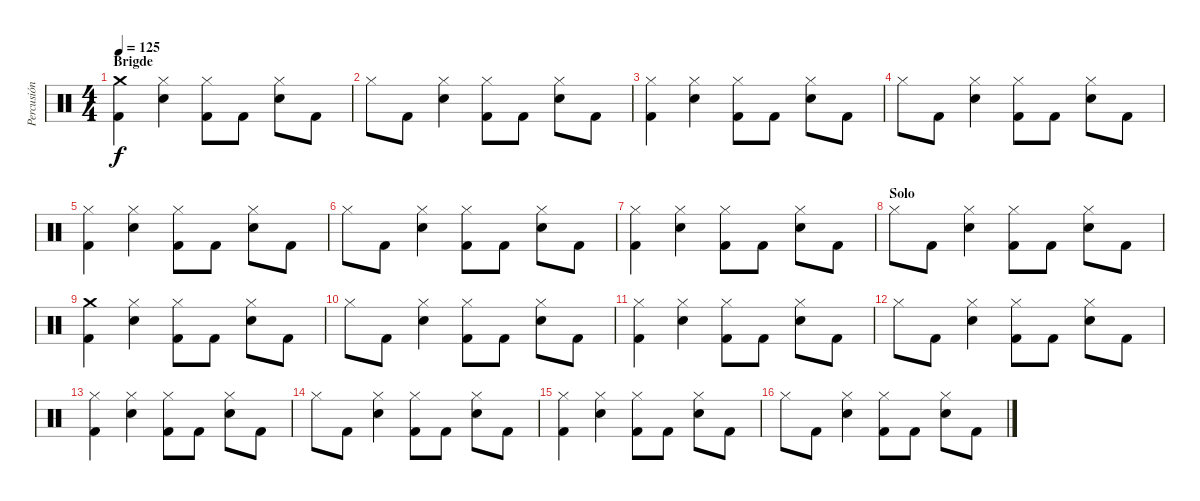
\track ("Percusión" "Percusión") {instrument percussion}
\staff {score}
\articulation defaults
\ts (4 4)
\section ("" "Brigde")
\tempo 125
\clef neutral
\ks c
("Crash medium (hit)" "Kick (hit) 2").4{dy f} ("Snare (hit) 2" "Hi-Hat (closed)").4 ("Kick (hit) 2" "Hi-Hat (closed)").8 "Kick (hit) 2".8 ("Hi-Hat (closed)" "Snare (hit) 2").8 "Kick (hit) 2".8 |
"Hi-Hat (closed)".8 "Kick (hit) 2".8 ("Hi-Hat (closed)" "Snare (hit) 2").4 ("Hi-Hat (closed)" "Kick (hit) 2").8 "Kick (hit) 2".8 ("Hi-Hat (closed)" "Snare (hit) 2").8 "Kick (hit) 2".8 |
("Hi-Hat (closed)" "Kick (hit) 2").4 ("Snare (hit) 2" "Hi-Hat (closed)").4 ("Kick (hit) 2" "Hi-Hat (closed)").8 "Kick (hit) 2".8 ("Hi-Hat (closed)" "Snare (hit) 2").8 "Kick (hit) 2".8 |
"Hi-Hat (closed)".8 "Kick (hit) 2".8 ("Hi-Hat (closed)" "Snare (hit) 2").4 ("Hi-Hat (closed)" "Kick (hit) 2").8 "Kick (hit) 2".8 ("Hi-Hat (closed)" "Snare (hit) 2").8 "Kick (hit) 2".8 |
("Hi-Hat (closed)" "Kick (hit) 2").4 ("Snare (hit) 2" "Hi-Hat (closed)").4 ("Kick (hit) 2" "Hi-Hat (closed)").8 "Kick (hit) 2".8 ("Hi-Hat (closed)" "Snare (hit) 2").8 "Kick (hit) 2".8 |
"Hi-Hat (closed)".8 "Kick (hit) 2".8 ("Hi-Hat (closed)" "Snare (hit) 2").4 ("Hi-Hat (closed)" "Kick (hit) 2").8 "Kick (hit) 2".8 ("Hi-Hat (closed)" "Snare (hit) 2").8 "Kick (hit) 2".8 |
("Hi-Hat (closed)" "Kick (hit) 2").4 ("Snare (hit) 2" "Hi-Hat (closed)").4 ("Kick (hit) 2" "Hi-Hat (closed)").8 "Kick (hit) 2".8 ("Hi-Hat (closed)" "Snare (hit) 2").8 "Kick (hit) 2".8 |
\section ("" "Solo")
"Hi-Hat (closed)".8 "Kick (hit) 2".8 ("Hi-Hat (closed)" "Snare (hit) 2").4 ("Hi-Hat (closed)" "Kick (hit) 2").8 "Kick (hit) 2".8 ("Hi-Hat (closed)" "Snare (hit) 2").8 "Kick (hit) 2".8 |
("Crash medium (hit)" "Kick (hit) 2").4 ("Snare (hit) 2" "Hi-Hat (closed)").4 ("Kick (hit) 2" "Hi-Hat (closed)").8 "Kick (hit) 2".8 ("Hi-Hat (closed)" "Snare (hit) 2").8 "Kick (hit) 2".8 |
"Hi-Hat (closed)".8 "Kick (hit) 2".8 ("Hi-Hat (closed)" "Snare (hit) 2").4 ("Hi-Hat (closed)" "Kick (hit) 2").8 "Kick (hit) 2".8 ("Hi-Hat (closed)" "Snare (hit) 2").8 "Kick (hit) 2".8 |
("Hi-Hat (closed)" "Kick (hit) 2").4 ("Snare (hit) 2" "Hi-Hat (closed)").4 ("Kick (hit) 2" "Hi-Hat (closed)").8 "Kick (hit) 2".8 ("Hi-Hat (closed)" "Snare (hit) 2").8 "Kick (hit) 2".8 |
"Hi-Hat (closed)".8 "Kick (hit) 2".8 ("Hi-Hat (closed)" "Snare (hit) 2").4 ("Hi-Hat (closed)" "Kick (hit) 2").8 "Kick (hit) 2".8 ("Hi-Hat (closed)" "Snare (hit) 2").8 "Kick (hit) 2".8 |
("Hi-Hat (closed)" "Kick (hit) 2").4 ("Snare (hit) 2" "Hi-Hat (closed)").4 ("Kick (hit) 2" "Hi-Hat (closed)").8 "Kick (hit) 2".8 ("Hi-Hat (closed)" "Snare (hit) 2").8 "Kick (hit) 2".8 |
"Hi-Hat (closed)".8 "Kick (hit) 2".8 ("Hi-Hat (closed)" "Snare (hit) 2").4 ("Hi-Hat (closed)" "Kick (hit) 2").8 "Kick (hit) 2".8 ("Hi-Hat (closed)" "Snare (hit) 2").8 "Kick (hit) 2".8 |
("Hi-Hat (closed)" "Kick (hit) 2").4 ("Snare (hit) 2" "Hi-Hat (closed)").4 ("Kick (hit) 2" "Hi-Hat (closed)").8 "Kick (hit) 2".8 ("Hi-Hat (closed)" "Snare (hit) 2").8 "Kick (hit) 2".8 |
"Hi-Hat (closed)".8 "Kick (hit) 2".8 ("Hi-Hat (closed)" "Snare (hit) 2").4 ("Hi-Hat (closed)" "Kick (hit) 2").8 "Kick (hit) 2".8 ("Hi-Hat (closed)" "Snare (hit) 2").8 "Kick (hit) 2".8
